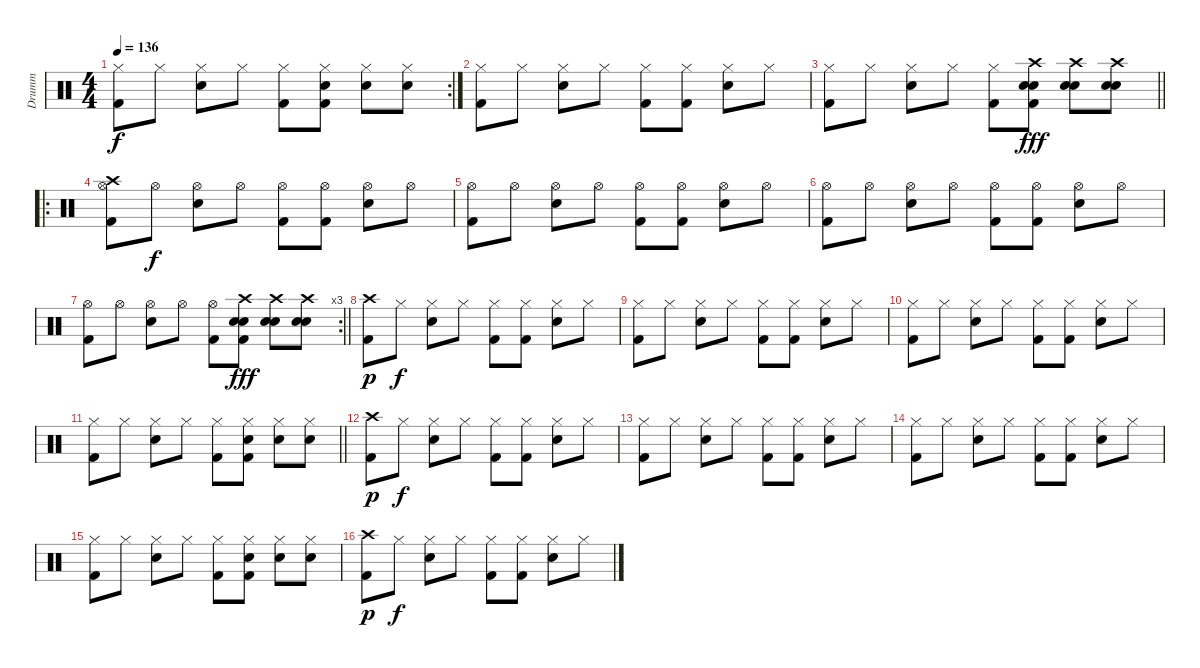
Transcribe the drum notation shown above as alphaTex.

\track ("Drumm" "Drumm") {instrument percussion}
\staff {score}
\articulation defaults
\rc 2
\ts (4 4)
\tempo 136
\clef neutral
\ks c
("Hi-Hat (closed)" "Kick (hit) 2").8{dy f} "Hi-Hat (closed)".8 ("Hi-Hat (closed)" "Snare (hit) 2").8 "Hi-Hat (closed)".8 ("Hi-Hat (closed)" "Kick (hit) 2").8 ("Hi-Hat (closed)" "Snare (hit) 2" "Kick (hit) 2").8 ("Hi-Hat (closed)" "Snare (hit) 2").8 ("Hi-Hat (closed)" "Snare (hit) 2").8 |
("Hi-Hat (closed)" "Kick (hit) 2").8 "Hi-Hat (closed)".8 ("Hi-Hat (closed)" "Snare (hit) 2").8 "Hi-Hat (closed)".8 ("Hi-Hat (closed)" "Kick (hit) 2").8 ("Hi-Hat (closed)" "Kick (hit) 2").8 ("Hi-Hat (closed)" "Snare (hit) 2").8 "Hi-Hat (closed)".8 |
\barLineRight lightlight
("Hi-Hat (closed)" "Kick (hit) 2").8 "Hi-Hat (closed)".8 ("Hi-Hat (closed)" "Snare (hit) 2").8 "Hi-Hat (closed)".8 ("Hi-Hat (closed)" "Kick (hit) 2").8 ("Crash high (hit)" "Electric Snare (hit)" "Snare (hit) 2" "Kick (hit) 2").8{dy fff} ("Crash high (hit)" "Electric Snare (hit)" "Snare (hit) 2").8 ("Crash high (hit)" "Electric Snare (hit)" "Snare (hit) 2").8 |
\ro
("Crash high (hit)" "Hi-Hat (open)" "Kick (hit) 2").8 "Hi-Hat (open)".8{dy f} ("Hi-Hat (open)" "Snare (hit) 2").8 "Hi-Hat (open)".8 ("Hi-Hat (open)" "Kick (hit) 2").8 ("Hi-Hat (open)" "Kick (hit) 2").8 ("Hi-Hat (open)" "Snare (hit) 2").8 "Hi-Hat (open)".8 |
("Hi-Hat (open)" "Kick (hit) 2").8 "Hi-Hat (open)".8 ("Hi-Hat (open)" "Snare (hit) 2").8 "Hi-Hat (open)".8 ("Hi-Hat (open)" "Kick (hit) 2").8 ("Hi-Hat (open)" "Kick (hit) 2").8 ("Hi-Hat (open)" "Snare (hit) 2").8 "Hi-Hat (open)".8 |
("Hi-Hat (open)" "Kick (hit) 2").8 "Hi-Hat (open)".8 ("Hi-Hat (open)" "Snare (hit) 2").8 "Hi-Hat (open)".8 ("Hi-Hat (open)" "Kick (hit) 2").8 ("Hi-Hat (open)" "Kick (hit) 2").8 ("Hi-Hat (open)" "Snare (hit) 2").8 "Hi-Hat (open)".8 |
\rc 3
\barLineRight lightlight
("Hi-Hat (open)" "Kick (hit) 2").8 "Hi-Hat (open)".8 ("Hi-Hat (open)" "Snare (hit) 2").8 "Hi-Hat (open)".8 ("Hi-Hat (open)" "Kick (hit) 2").8 ("Crash high (hit)" "Electric Snare (hit)" "Snare (hit) 2" "Kick (hit) 2").8{dy fff} ("Crash high (hit)" "Electric Snare (hit)" "Snare (hit) 2").8 ("Crash high (hit)" "Electric Snare (hit)" "Snare (hit) 2").8 |
("Crash high (hit)" "Kick (hit) 2").8{dy p} "Hi-Hat (closed)".8{dy f} ("Hi-Hat (closed)" "Snare (hit) 2").8 "Hi-Hat (closed)".8 ("Hi-Hat (closed)" "Kick (hit) 2").8 ("Hi-Hat (closed)" "Kick (hit) 2").8 ("Hi-Hat (closed)" "Snare (hit) 2").8 "Hi-Hat (closed)".8 |
("Hi-Hat (closed)" "Kick (hit) 2").8 "Hi-Hat (closed)".8 ("Hi-Hat (closed)" "Snare (hit) 2").8 "Hi-Hat (closed)".8 ("Hi-Hat (closed)" "Kick (hit) 2").8 ("Hi-Hat (closed)" "Kick (hit) 2").8 ("Hi-Hat (closed)" "Snare (hit) 2").8 "Hi-Hat (closed)".8 |
("Hi-Hat (closed)" "Kick (hit) 2").8 "Hi-Hat (closed)".8 ("Hi-Hat (closed)" "Snare (hit) 2").8 "Hi-Hat (closed)".8 ("Hi-Hat (closed)" "Kick (hit) 2").8 ("Hi-Hat (closed)" "Kick (hit) 2").8 ("Hi-Hat (closed)" "Snare (hit) 2").8 "Hi-Hat (closed)".8 |
\barLineRight lightlight
("Hi-Hat (closed)" "Kick (hit) 2").8 "Hi-Hat (closed)".8 ("Hi-Hat (closed)" "Snare (hit) 2").8 "Hi-Hat (closed)".8 ("Hi-Hat (closed)" "Kick (hit) 2").8 ("Hi-Hat (closed)" "Snare (hit) 2" "Kick (hit) 2").8 ("Hi-Hat (closed)" "Snare (hit) 2").8 ("Hi-Hat (closed)" "Snare (hit) 2").8 |
("Crash high (hit)" "Kick (hit) 2").8{dy p} "Hi-Hat (closed)".8{dy f} ("Hi-Hat (closed)" "Snare (hit) 2").8 "Hi-Hat (closed)".8 ("Hi-Hat (closed)" "Kick (hit) 2").8 ("Hi-Hat (closed)" "Kick (hit) 2").8 ("Hi-Hat (closed)" "Snare (hit) 2").8 "Hi-Hat (closed)".8 |
("Hi-Hat (closed)" "Kick (hit) 2").8 "Hi-Hat (closed)".8 ("Hi-Hat (closed)" "Snare (hit) 2").8 "Hi-Hat (closed)".8 ("Hi-Hat (closed)" "Kick (hit) 2").8 ("Hi-Hat (closed)" "Kick (hit) 2").8 ("Hi-Hat (closed)" "Snare (hit) 2").8 "Hi-Hat (closed)".8 |
("Hi-Hat (closed)" "Kick (hit) 2").8 "Hi-Hat (closed)".8 ("Hi-Hat (closed)" "Snare (hit) 2").8 "Hi-Hat (closed)".8 ("Hi-Hat (closed)" "Kick (hit) 2").8 ("Hi-Hat (closed)" "Kick (hit) 2").8 ("Hi-Hat (closed)" "Snare (hit) 2").8 "Hi-Hat (closed)".8 |
("Hi-Hat (closed)" "Kick (hit) 2").8 "Hi-Hat (closed)".8 ("Hi-Hat (closed)" "Snare (hit) 2").8 "Hi-Hat (closed)".8 ("Hi-Hat (closed)" "Kick (hit) 2").8 ("Hi-Hat (closed)" "Snare (hit) 2" "Kick (hit) 2").8 ("Hi-Hat (closed)" "Snare (hit) 2").8 ("Hi-Hat (closed)" "Snare (hit) 2").8 |
("Crash high (hit)" "Kick (hit) 2").8{dy p} "Hi-Hat (closed)".8{dy f} ("Hi-Hat (closed)" "Snare (hit) 2").8 "Hi-Hat (closed)".8 ("Hi-Hat (closed)" "Kick (hit) 2").8 ("Hi-Hat (closed)" "Kick (hit) 2").8 ("Hi-Hat (closed)" "Snare (hit) 2").8 "Hi-Hat (closed)".8
